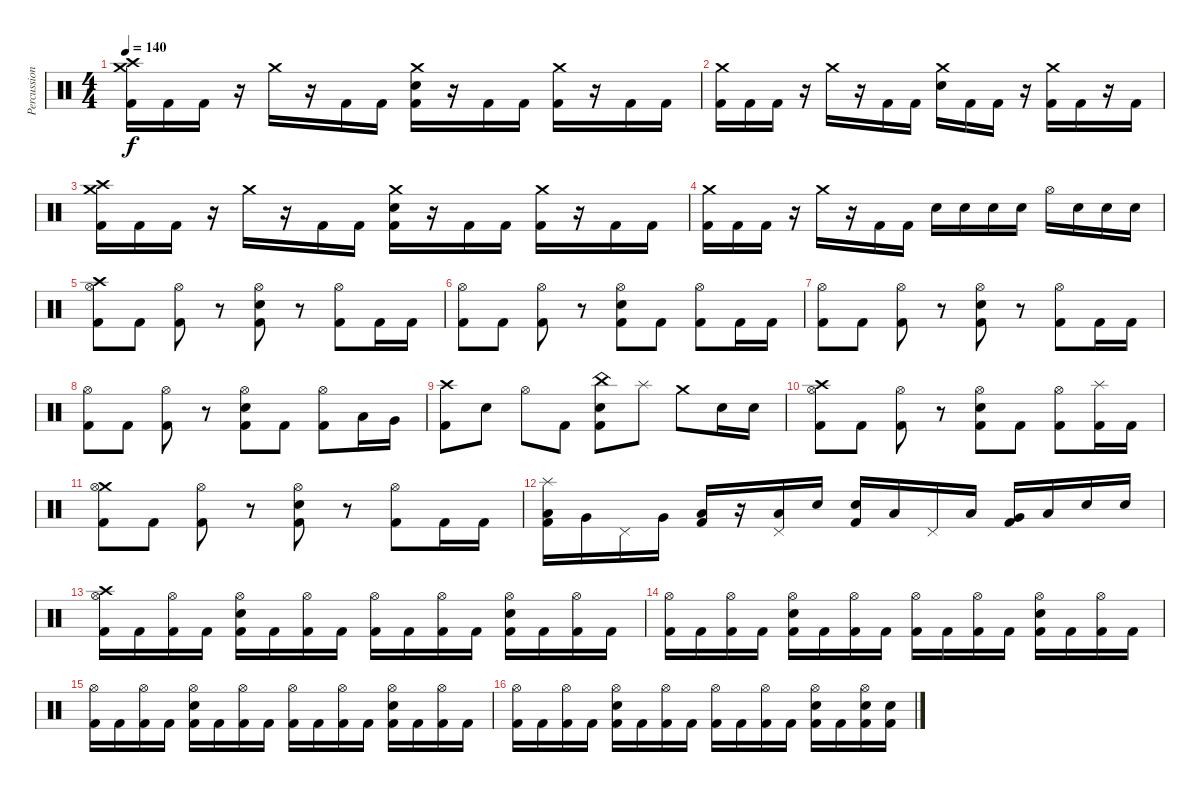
\track ("Percussion" "Percussion") {instrument percussion}
\staff {score}
\articulation defaults
\ts (4 4)
\tempo 140
\clef neutral
\ks c
("Crash high (hit)" "Crash medium (hit)" "Kick (hit) 2").16{dy f} "Kick (hit) 2".16 "Kick (hit) 2".16 r.16 "Crash medium (hit)".16 r.16 "Kick (hit) 2".16 "Kick (hit) 2".16 ("Crash medium (hit)" "Electric Snare (hit)" "Kick (hit) 2").16 r.16 "Kick (hit) 2".16 "Kick (hit) 2".16 ("Crash medium (hit)" "Kick (hit) 2").16 r.16 "Kick (hit) 2".16 "Kick (hit) 2".16 |
("Crash medium (hit)" "Kick (hit) 2").16 "Kick (hit) 2".16 "Kick (hit) 2".16 r.16 "Crash medium (hit)".16 r.16 "Kick (hit) 2".16 "Kick (hit) 2".16 ("Crash medium (hit)" "Electric Snare (hit)").16 "Kick (hit) 2".16 "Kick (hit) 2".16 r.16 ("Crash medium (hit)" "Kick (hit) 2").16 "Kick (hit) 2".16 r.16 "Kick (hit) 2".16 |
("Crash high (hit)" "Crash medium (hit)" "Kick (hit) 2").16 "Kick (hit) 2".16 "Kick (hit) 2".16 r.16 "Crash medium (hit)".16 r.16 "Kick (hit) 2".16 "Kick (hit) 2".16 ("Crash medium (hit)" "Electric Snare (hit)" "Kick (hit) 2").16 r.16 "Kick (hit) 2".16 "Kick (hit) 2".16 ("Crash medium (hit)" "Kick (hit) 2").16 r.16 "Kick (hit) 2".16 "Kick (hit) 2".16 |
("Crash medium (hit)" "Kick (hit) 2").16 "Kick (hit) 2".16 "Kick (hit) 2".16 r.16 "Crash medium (hit)".16 r.16 "Kick (hit) 2".16 "Kick (hit) 2".16 "Electric Snare (hit)".16 "Electric Snare (hit)".16 "Electric Snare (hit)".16 "Electric Snare (hit)".16 "Hi-Hat (open)".16 "Electric Snare (hit)".16 "Electric Snare (hit)".16 "Electric Snare (hit)".16 |
("Crash high (hit)" "Hi-Hat (open)" "Kick (hit) 2").8 "Kick (hit) 2".8 ("Hi-Hat (open)" "Kick (hit) 2").8 r.8 ("Hi-Hat (open)" "Electric Snare (hit)" "Kick (hit) 2").8 r.8 ("Hi-Hat (open)" "Kick (hit) 2").8 "Kick (hit) 2".16 "Kick (hit) 2".16 |
("Hi-Hat (open)" "Kick (hit) 2").8 "Kick (hit) 2".8 ("Hi-Hat (open)" "Kick (hit) 2").8 r.8 ("Hi-Hat (open)" "Electric Snare (hit)" "Kick (hit) 2").8 "Kick (hit) 2".8 ("Hi-Hat (open)" "Kick (hit) 2").8 "Kick (hit) 2".16 "Kick (hit) 2".16 |
("Hi-Hat (open)" "Kick (hit) 2").8 "Kick (hit) 2".8 ("Hi-Hat (open)" "Kick (hit) 2").8 r.8 ("Hi-Hat (open)" "Electric Snare (hit)" "Kick (hit) 2").8 r.8 ("Hi-Hat (open)" "Kick (hit) 2").8 "Kick (hit) 2".16 "Kick (hit) 2".16 |
("Hi-Hat (open)" "Kick (hit) 2").8 "Kick (hit) 2".8 ("Hi-Hat (open)" "Kick (hit) 2").8 r.8 ("Hi-Hat (open)" "Electric Snare (hit)" "Kick (hit) 2").8 "Kick (hit) 2".8 ("Hi-Hat (open)" "Kick (hit) 2").8 "Low Tom (hit)".16 "Very Low Tom (hit)".16 |
("Crash high (hit)" "Kick (hit) 2").8 "Electric Snare (hit)".8 "Hi-Hat (open)".8 "Kick (hit) 2".8 ("China (hit)" "Electric Snare (hit)" "Kick (hit) 2").8 "Splash (hit)".8 "Crash medium (hit)".8 "Electric Snare (hit)".16 "Electric Snare (hit)".16 |
("Crash high (hit)" "Hi-Hat (open)" "Kick (hit) 2").8 "Kick (hit) 2".8 ("Hi-Hat (open)" "Kick (hit) 2").8 r.8 ("Hi-Hat (open)" "Electric Snare (hit)" "Kick (hit) 2").8 "Kick (hit) 2".8 ("Hi-Hat (open)" "Kick (hit) 2").8 ("Splash (hit)" "Kick (hit) 2").16 "Kick (hit) 2".16 |
("Crash medium (hit)" "Hi-Hat (open)" "Kick (hit) 2").8 "Kick (hit) 2".8 ("Hi-Hat (open)" "Kick (hit) 2").8 r.8 ("Hi-Hat (open)" "Electric Snare (hit)" "Kick (hit) 2").8 r.8 ("Hi-Hat (open)" "Kick (hit) 2").8 "Kick (hit) 2".16 "Kick (hit) 2".16 |
("Splash (hit)" "Low Tom (hit)" "Kick (hit) 2").16 "Very Low Tom (hit)".16 "Pedal Hi-Hat (hit)".16 "Very Low Tom (hit)".16 ("Low Floor Tom (hit)" "Kick (hit) 2").16 r.16 ("Pedal Hi-Hat (hit)" "Low Floor Tom (hit)").16 "Electric Snare (hit)".16 ("Electric Snare (hit)" "Kick (hit) 2").16 "Low Tom (hit)".16 "Pedal Hi-Hat (hit)".16 "Low Tom (hit)".16 ("Very Low Tom (hit)" "Kick (hit) 2").16 "Low Floor Tom (hit)".16 "Electric Snare (hit)".16 "Electric Snare (hit)".16 |
("Crash high (hit)" "Hi-Hat (open)" "Kick (hit) 2").16 "Kick (hit) 2".16 ("Hi-Hat (open)" "Kick (hit) 2").16 "Kick (hit) 2".16 ("Hi-Hat (open)" "Electric Snare (hit)" "Kick (hit) 2").16 "Kick (hit) 2".16 ("Hi-Hat (open)" "Kick (hit) 2").16 "Kick (hit) 2".16 ("Hi-Hat (open)" "Kick (hit) 2").16 "Kick (hit) 2".16 ("Hi-Hat (open)" "Kick (hit) 2").16 "Kick (hit) 2".16 ("Hi-Hat (open)" "Electric Snare (hit)" "Kick (hit) 2").16 "Kick (hit) 2".16 ("Hi-Hat (open)" "Kick (hit) 2").16 "Kick (hit) 2".16 |
("Hi-Hat (open)" "Kick (hit) 2").16 "Kick (hit) 2".16 ("Hi-Hat (open)" "Kick (hit) 2").16 "Kick (hit) 2".16 ("Hi-Hat (open)" "Electric Snare (hit)" "Kick (hit) 2").16 "Kick (hit) 2".16 ("Hi-Hat (open)" "Kick (hit) 2").16 "Kick (hit) 2".16 ("Hi-Hat (open)" "Kick (hit) 2").16 "Kick (hit) 2".16 ("Hi-Hat (open)" "Kick (hit) 2").16 "Kick (hit) 2".16 ("Hi-Hat (open)" "Electric Snare (hit)" "Kick (hit) 2").16 "Kick (hit) 2".16 ("Hi-Hat (open)" "Kick (hit) 2").16 "Kick (hit) 2".16 |
("Hi-Hat (open)" "Kick (hit) 2").16 "Kick (hit) 2".16 ("Hi-Hat (open)" "Kick (hit) 2").16 "Kick (hit) 2".16 ("Hi-Hat (open)" "Electric Snare (hit)" "Kick (hit) 2").16 "Kick (hit) 2".16 ("Hi-Hat (open)" "Kick (hit) 2").16 "Kick (hit) 2".16 ("Hi-Hat (open)" "Kick (hit) 2").16 "Kick (hit) 2".16 ("Hi-Hat (open)" "Kick (hit) 2").16 "Kick (hit) 2".16 ("Hi-Hat (open)" "Electric Snare (hit)" "Kick (hit) 2").16 "Kick (hit) 2".16 ("Hi-Hat (open)" "Kick (hit) 2").16 "Kick (hit) 2".16 |
("Hi-Hat (open)" "Kick (hit) 2").16 "Kick (hit) 2".16 ("Hi-Hat (open)" "Kick (hit) 2").16 "Kick (hit) 2".16 ("Hi-Hat (open)" "Electric Snare (hit)" "Kick (hit) 2").16 "Kick (hit) 2".16 ("Hi-Hat (open)" "Kick (hit) 2").16 "Kick (hit) 2".16 ("Hi-Hat (open)" "Kick (hit) 2").16 "Kick (hit) 2".16 ("Hi-Hat (open)" "Kick (hit) 2").16 "Kick (hit) 2".16 ("Hi-Hat (open)" "Electric Snare (hit)" "Kick (hit) 2").16 "Kick (hit) 2".16 ("Hi-Hat (open)" "Electric Snare (hit)" "Kick (hit) 2").16 ("Electric Snare (hit)" "Kick (hit) 2").16
